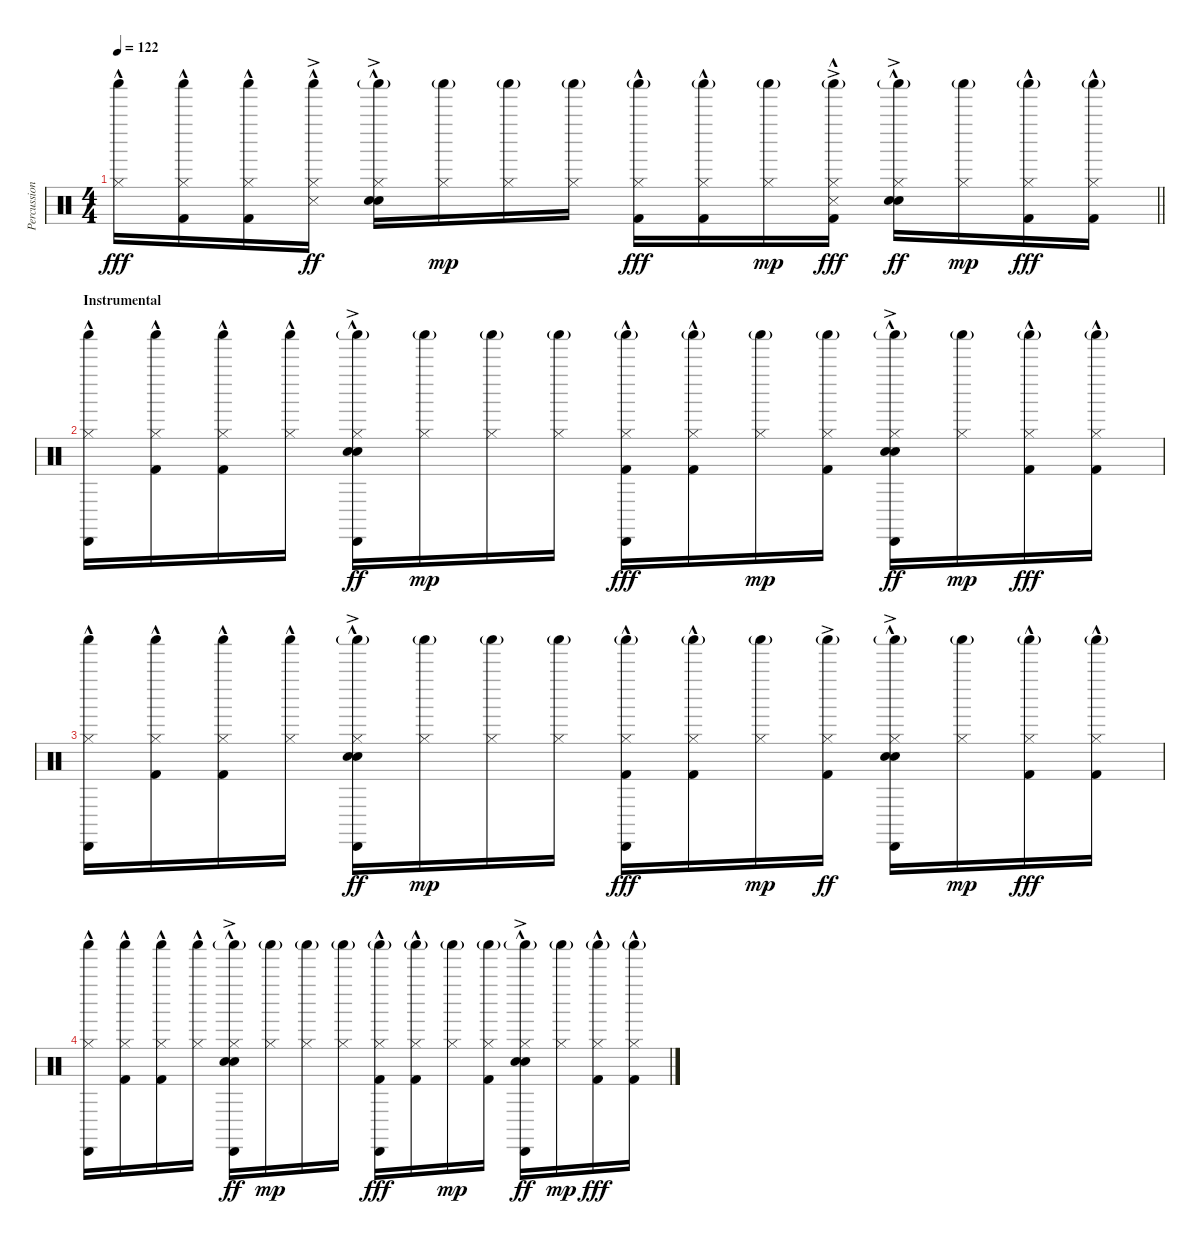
\track ("Percussion" "Percussion") {instrument percussion}
\staff {score}
\articulation defaults
\ts (4 4)
\tempo 122
\clef neutral
\barLineRight lightlight
\ks c
("Shaker (hit)" "Hi-Hat (closed)"{hac}).16{dy fff} ("Shaker (hit)" "Hi-Hat (closed)"{hac} "Kick (hit) 2"{hac}).16 ("Shaker (hit)" "Hi-Hat (closed)"{hac} "Kick (hit) 2"{hac}).16 ("Shaker (hit)" "Hi-Hat (closed)"{hac} "Snare (side stick) 3"{ac}).16{dy ff} ("Shaker (hit)"{g} "Hi-Hat (closed)" "Hand Clap (hit)"{hac} "Snare (hit) 2"{ac}).16 ("Shaker (hit)"{g} "Hi-Hat (closed)").16{dy mp} ("Shaker (hit)"{g} "Hi-Hat (closed)").16 ("Shaker (hit)"{g} "Hi-Hat (closed)").16 ("Shaker (hit)"{g} "Hi-Hat (closed)" "Kick (hit) 2"{hac}).16{dy fff} ("Shaker (hit)"{g} "Hi-Hat (closed)" "Kick (hit) 2"{hac}).16 ("Shaker (hit)"{g} "Hi-Hat (closed)").16{dy mp} ("Shaker (hit)"{g} "Hi-Hat (closed)" "Snare (side stick) 3"{ac} "Kick (hit) 2"{hac}).16{dy fff} ("Shaker (hit)"{g} "Hi-Hat (closed)" "Hand Clap (hit)"{hac} "Snare (hit) 2"{ac}).16{dy ff} ("Shaker (hit)"{g} "Hi-Hat (closed)").16{dy mp} ("Shaker (hit)"{g} "Hi-Hat (closed)" "Kick (hit) 2"{hac}).16{dy fff} ("Shaker (hit)"{g} "Hi-Hat (closed)" "Kick (hit) 2"{hac}).16 |
\section ("" "Instrumental")
("Cabasa (hit)"{hac} "Shaker (hit)" "Hi-Hat (closed)"{hac}).16 ("Shaker (hit)" "Hi-Hat (closed)"{hac} "Kick (hit) 2"{hac}).16 ("Shaker (hit)" "Hi-Hat (closed)"{hac} "Kick (hit) 2"{hac}).16 ("Shaker (hit)" "Hi-Hat (closed)"{hac}).16 ("Cabasa (hit)"{hac} "Shaker (hit)"{g} "Hi-Hat (closed)" "Hand Clap (hit)"{ac} "Snare (hit) 2"{ac}).16{dy ff} ("Shaker (hit)"{g} "Hi-Hat (closed)").16{dy mp} ("Shaker (hit)"{g} "Hi-Hat (closed)").16 ("Shaker (hit)"{g} "Hi-Hat (closed)").16 ("Cabasa (hit)"{hac} "Shaker (hit)"{g} "Hi-Hat (closed)" "Kick (hit) 2"{hac}).16{dy fff} ("Shaker (hit)"{g} "Hi-Hat (closed)" "Kick (hit) 2"{hac}).16 ("Shaker (hit)"{g} "Hi-Hat (closed)").16{dy mp} ("Shaker (hit)"{g} "Hi-Hat (closed)" "Kick (hit) 2").16 ("Cabasa (hit)"{hac} "Shaker (hit)"{g} "Hi-Hat (closed)" "Hand Clap (hit)"{ac} "Snare (hit) 2"{ac}).16{dy ff} ("Shaker (hit)"{g} "Hi-Hat (closed)").16{dy mp} ("Shaker (hit)"{g} "Hi-Hat (closed)" "Kick (hit) 2"{hac}).16{dy fff} ("Shaker (hit)"{g} "Hi-Hat (closed)" "Kick (hit) 2"{hac}).16 |
("Cabasa (hit)"{hac} "Shaker (hit)" "Hi-Hat (closed)"{hac}).16 ("Shaker (hit)" "Hi-Hat (closed)"{hac} "Kick (hit) 2"{hac}).16 ("Shaker (hit)" "Hi-Hat (closed)"{hac} "Kick (hit) 2"{hac}).16 ("Shaker (hit)" "Hi-Hat (closed)"{hac}).16 ("Cabasa (hit)"{hac} "Shaker (hit)"{g} "Hi-Hat (closed)" "Hand Clap (hit)"{ac} "Snare (hit) 2"{ac}).16{dy ff} ("Shaker (hit)"{g} "Hi-Hat (closed)").16{dy mp} ("Shaker (hit)"{g} "Hi-Hat (closed)").16 ("Shaker (hit)"{g} "Hi-Hat (closed)").16 ("Cabasa (hit)"{hac} "Shaker (hit)"{g} "Hi-Hat (closed)" "Kick (hit) 2"{hac}).16{dy fff} ("Shaker (hit)"{g} "Hi-Hat (closed)" "Kick (hit) 2"{hac}).16 ("Shaker (hit)"{g} "Hi-Hat (closed)").16{dy mp} ("Shaker (hit)"{g} "Hi-Hat (closed)" "Kick (hit) 2"{ac}).16{dy ff} ("Cabasa (hit)"{hac} "Shaker (hit)"{g} "Hi-Hat (closed)" "Hand Clap (hit)"{ac} "Snare (hit) 2"{ac}).16 ("Shaker (hit)"{g} "Hi-Hat (closed)").16{dy mp} ("Shaker (hit)"{g} "Hi-Hat (closed)" "Kick (hit) 2"{hac}).16{dy fff} ("Shaker (hit)"{g} "Hi-Hat (closed)" "Kick (hit) 2"{hac}).16 |
("Cabasa (hit)"{hac} "Shaker (hit)" "Hi-Hat (closed)"{hac}).16 ("Shaker (hit)" "Hi-Hat (closed)"{hac} "Kick (hit) 2"{hac}).16 ("Shaker (hit)" "Hi-Hat (closed)"{hac} "Kick (hit) 2"{hac}).16 ("Shaker (hit)" "Hi-Hat (closed)"{hac}).16 ("Cabasa (hit)"{hac} "Shaker (hit)"{g} "Hi-Hat (closed)" "Hand Clap (hit)"{ac} "Snare (hit) 2"{ac}).16{dy ff} ("Shaker (hit)"{g} "Hi-Hat (closed)").16{dy mp} ("Shaker (hit)"{g} "Hi-Hat (closed)").16 ("Shaker (hit)"{g} "Hi-Hat (closed)").16 ("Cabasa (hit)"{hac} "Shaker (hit)"{g} "Hi-Hat (closed)" "Kick (hit) 2"{hac}).16{dy fff} ("Shaker (hit)"{g} "Hi-Hat (closed)" "Kick (hit) 2"{hac}).16 ("Shaker (hit)"{g} "Hi-Hat (closed)").16{dy mp} ("Shaker (hit)"{g} "Hi-Hat (closed)" "Kick (hit) 2").16 ("Cabasa (hit)"{hac} "Shaker (hit)"{g} "Hi-Hat (closed)" "Hand Clap (hit)"{ac} "Snare (hit) 2"{ac}).16{dy ff} ("Shaker (hit)"{g} "Hi-Hat (closed)").16{dy mp} ("Shaker (hit)"{g} "Hi-Hat (closed)" "Kick (hit) 2"{hac}).16{dy fff} ("Shaker (hit)"{g} "Hi-Hat (closed)" "Kick (hit) 2"{hac}).16
